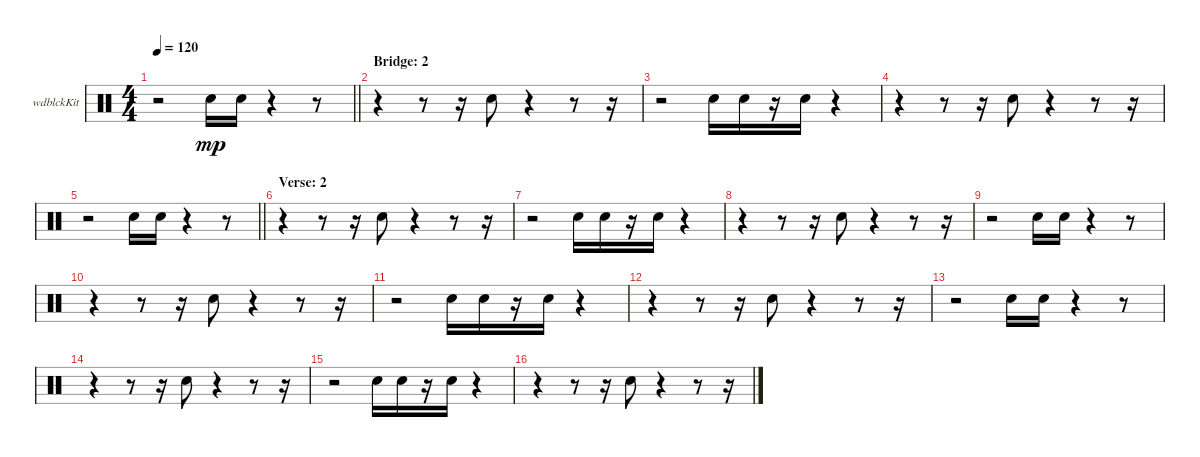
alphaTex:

\bracketExtendMode groupsimilarinstruments
\firstSystemTrackNameOrientation horizontal
\otherSystemsTrackNameOrientation horizontal
\track ("Woodblock" "wdblckKit") {instrument percussion}
\staff {score}
\articulation defaults
\ts (4 4)
\tempo 120
\clef neutral
\barLineRight lightlight
\ks c
r.2{dy mp} "Snare (hit) 2".16 "Snare (hit) 2".16 r.4 r.8 |
\section ("" "Bridge: 2")
r.4 r.8 r.16 "Snare (hit) 2".8 r.4 r.8 r.16 |
r.2 "Snare (hit) 2".16 "Snare (hit) 2".16 r.16 "Snare (hit) 2".16 r.4 |
r.4 r.8 r.16 "Snare (hit) 2".8 r.4 r.8 r.16 |
\barLineRight lightlight
r.2 "Snare (hit) 2".16 "Snare (hit) 2".16 r.4 r.8 |
\section ("" "Verse: 2")
r.4 r.8 r.16 "Snare (hit) 2".8 r.4 r.8 r.16 |
r.2 "Snare (hit) 2".16 "Snare (hit) 2".16 r.16 "Snare (hit) 2".16 r.4 |
r.4 r.8 r.16 "Snare (hit) 2".8 r.4 r.8 r.16 |
r.2 "Snare (hit) 2".16 "Snare (hit) 2".16 r.4 r.8 |
r.4 r.8 r.16 "Snare (hit) 2".8 r.4 r.8 r.16 |
r.2 "Snare (hit) 2".16 "Snare (hit) 2".16 r.16 "Snare (hit) 2".16 r.4 |
r.4 r.8 r.16 "Snare (hit) 2".8 r.4 r.8 r.16 |
r.2 "Snare (hit) 2".16 "Snare (hit) 2".16 r.4 r.8 |
r.4 r.8 r.16 "Snare (hit) 2".8 r.4 r.8 r.16 |
r.2 "Snare (hit) 2".16 "Snare (hit) 2".16 r.16 "Snare (hit) 2".16 r.4 |
r.4 r.8 r.16 "Snare (hit) 2".8 r.4 r.8 r.16
